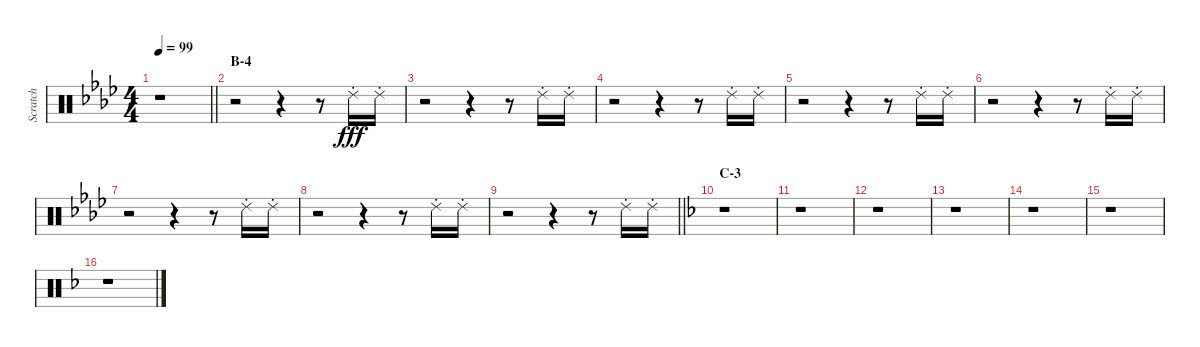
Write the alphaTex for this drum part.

\track ("Scratch" "Scratch") {instrument percussion}
\staff {score}
\articulation defaults
\ts (4 4)
\tempo 99
\clef neutral
\barLineRight lightlight
\ks ab
r.1{dy fff} |
\section ("" "B-4")
r.2 r.4 r.8 "Ride (choke) 2".16 "Ride (choke) 2".16 |
r.2 r.4 r.8 "Ride (choke) 2".16 "Ride (choke) 2".16 |
r.2 r.4 r.8 "Ride (choke) 2".16 "Ride (choke) 2".16 |
r.2 r.4 r.8 "Ride (choke) 2".16 "Ride (choke) 2".16 |
r.2 r.4 r.8 "Ride (choke) 2".16 "Ride (choke) 2".16 |
r.2 r.4 r.8 "Ride (choke) 2".16 "Ride (choke) 2".16 |
r.2 r.4 r.8 "Ride (choke) 2".16 "Ride (choke) 2".16 |
\barLineRight lightlight
r.2 r.4 r.8 "Ride (choke) 2".16 "Ride (choke) 2".16 |
\section ("" "C-3")
\ks f
r.1 |
r.1 |
r.1 |
r.1 |
r.1 |
r.1 |
r.1
